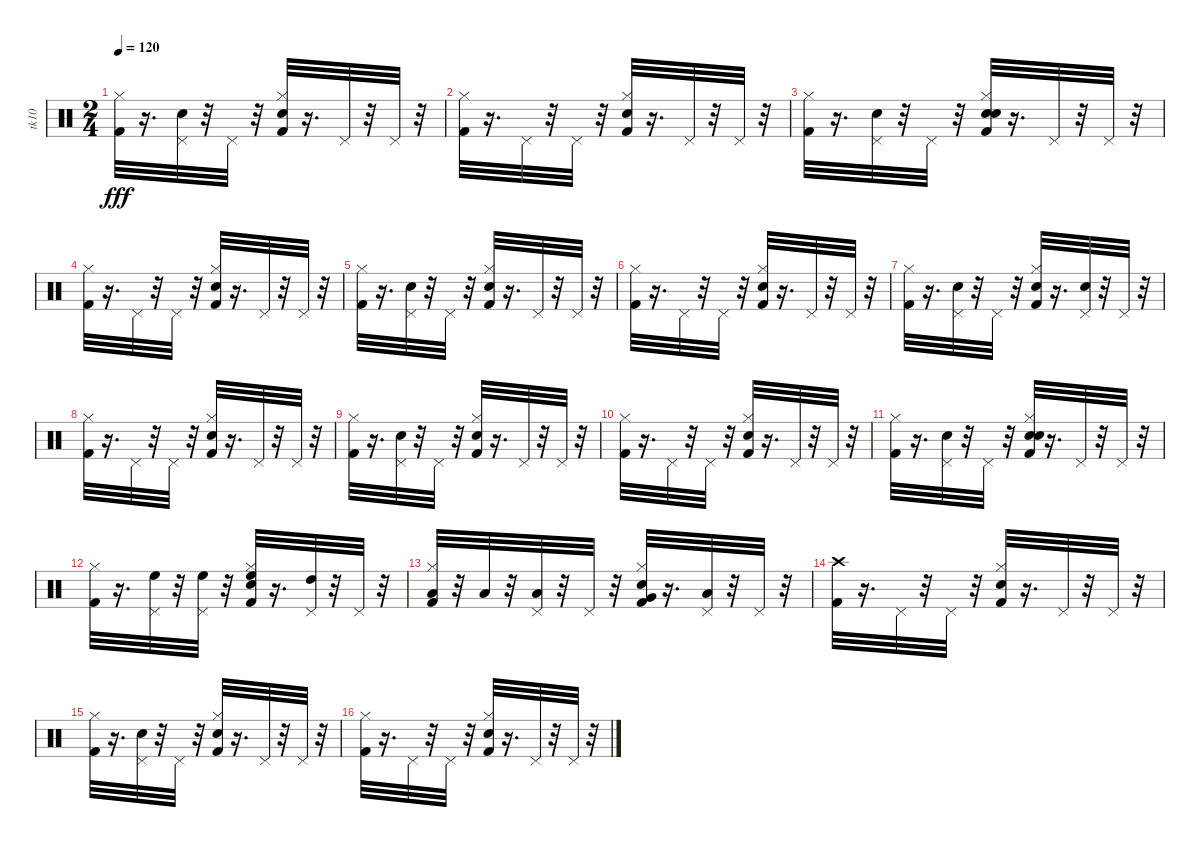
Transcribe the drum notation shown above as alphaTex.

\track ("tk10" "tk10") {instrument percussion}
\staff {score}
\articulation defaults
\ts (2 4)
\tempo 120
\clef neutral
\ks c
("Kick (hit) 2" "Hi-Hat (closed)").32{dy fff} r.16{d} ("Pedal Hi-Hat (hit)" "Hand Clap (hit)").32 r.32 "Pedal Hi-Hat (hit)".32 r.32 ("Snare (hit) 2" "Kick (hit) 2" "Hi-Hat (closed)").32 r.16{d} "Pedal Hi-Hat (hit)".32 r.32 "Pedal Hi-Hat (hit)".32 r.32 |
("Kick (hit) 2" "Hi-Hat (closed)").32 r.16{d} "Pedal Hi-Hat (hit)".32 r.32 "Pedal Hi-Hat (hit)".32 r.32 ("Snare (hit) 2" "Kick (hit) 2" "Hi-Hat (closed)").32 r.16{d} "Pedal Hi-Hat (hit)".32 r.32 "Pedal Hi-Hat (hit)".32 r.32 |
("Kick (hit) 2" "Hi-Hat (closed)").32 r.16{d} ("Hand Clap (hit)" "Pedal Hi-Hat (hit)").32 r.32 "Pedal Hi-Hat (hit)".32 r.32 ("Snare (hit) 2" "Kick (hit) 2" "Hand Clap (hit)" "Hi-Hat (closed)").32 r.16{d} "Pedal Hi-Hat (hit)".32 r.32 "Pedal Hi-Hat (hit)".32 r.32 |
("Kick (hit) 2" "Hi-Hat (closed)").32 r.16{d} "Pedal Hi-Hat (hit)".32 r.32 "Pedal Hi-Hat (hit)".32 r.32 ("Kick (hit) 2" "Snare (hit) 2" "Hi-Hat (closed)").32 r.16{d} "Pedal Hi-Hat (hit)".32 r.32 "Pedal Hi-Hat (hit)".32 r.32 |
("Kick (hit) 2" "Hi-Hat (closed)").32 r.16{d} ("Hand Clap (hit)" "Pedal Hi-Hat (hit)").32 r.32 "Pedal Hi-Hat (hit)".32 r.32 ("Kick (hit) 2" "Snare (hit) 2" "Hi-Hat (closed)").32 r.16{d} "Pedal Hi-Hat (hit)".32 r.32 "Pedal Hi-Hat (hit)".32 r.32 |
("Kick (hit) 2" "Hi-Hat (closed)").32 r.16{d} "Pedal Hi-Hat (hit)".32 r.32 "Pedal Hi-Hat (hit)".32 r.32 ("Snare (hit) 2" "Kick (hit) 2" "Hi-Hat (closed)").32 r.16{d} "Pedal Hi-Hat (hit)".32 r.32 "Pedal Hi-Hat (hit)".32 r.32 |
("Kick (hit) 2" "Hi-Hat (closed)").32 r.16{d} ("Hand Clap (hit)" "Pedal Hi-Hat (hit)").32 r.32 "Pedal Hi-Hat (hit)".32 r.32 ("Snare (hit) 2" "Kick (hit) 2" "Hi-Hat (closed)").32 r.16{d} ("Hand Clap (hit)" "Pedal Hi-Hat (hit)").32 r.32 "Pedal Hi-Hat (hit)".32 r.32 |
("Kick (hit) 2" "Hi-Hat (closed)").32 r.16{d} "Pedal Hi-Hat (hit)".32 r.32 "Pedal Hi-Hat (hit)".32 r.32 ("Snare (hit) 2" "Kick (hit) 2" "Hi-Hat (closed)").32 r.16{d} "Pedal Hi-Hat (hit)".32 r.32 "Pedal Hi-Hat (hit)".32 r.32 |
("Kick (hit) 2" "Hi-Hat (closed)").32 r.16{d} ("Pedal Hi-Hat (hit)" "Hand Clap (hit)").32 r.32 "Pedal Hi-Hat (hit)".32 r.32 ("Snare (hit) 2" "Kick (hit) 2" "Hi-Hat (closed)").32 r.16{d} "Pedal Hi-Hat (hit)".32 r.32 "Pedal Hi-Hat (hit)".32 r.32 |
("Kick (hit) 2" "Hi-Hat (closed)").32 r.16{d} "Pedal Hi-Hat (hit)".32 r.32 "Pedal Hi-Hat (hit)".32 r.32 ("Snare (hit) 2" "Kick (hit) 2" "Hi-Hat (closed)").32 r.16{d} "Pedal Hi-Hat (hit)".32 r.32 "Pedal Hi-Hat (hit)".32 r.32 |
("Kick (hit) 2" "Hi-Hat (closed)").32 r.16{d} ("Hand Clap (hit)" "Pedal Hi-Hat (hit)").32 r.32 "Pedal Hi-Hat (hit)".32 r.32 ("Snare (hit) 2" "Kick (hit) 2" "Hand Clap (hit)" "Hi-Hat (closed)").32 r.16{d} "Pedal Hi-Hat (hit)".32 r.32 "Pedal Hi-Hat (hit)".32 r.32 |
("Kick (hit) 2" "Hi-Hat (closed)").32 r.16{d} ("Pedal Hi-Hat (hit)" "High Floor Tom (hit)").32 r.32 ("High Floor Tom (hit)" "Pedal Hi-Hat (hit)").32 r.32 ("Kick (hit) 2" "Snare (hit) 2" "Hi-Hat (closed)" "High Floor Tom (hit)").32 r.16{d} ("High Tom (hit)" "Pedal Hi-Hat (hit)").32 r.32 "Pedal Hi-Hat (hit)".32 r.32 |
("Kick (hit) 2" "Low Tom (hit)" "Hi-Hat (closed)").32 r.32 "Low Tom (hit)".32 r.32 ("Low Tom (hit)" "Pedal Hi-Hat (hit)").32 r.32 "Pedal Hi-Hat (hit)".32 r.32 ("Kick (hit) 2" "Snare (hit) 2" "Very Low Tom (hit)" "Hi-Hat (closed)").32 r.16{d} ("Low Floor Tom (hit)" "Pedal Hi-Hat (hit)").32 r.32 "Pedal Hi-Hat (hit)".32 r.32 |
("Kick (hit) 2" "Crash high (hit)").32 r.16{d} "Pedal Hi-Hat (hit)".32 r.32 "Pedal Hi-Hat (hit)".32 r.32 ("Snare (hit) 2" "Kick (hit) 2" "Hi-Hat (closed)").32 r.16{d} "Pedal Hi-Hat (hit)".32 r.32 "Pedal Hi-Hat (hit)".32 r.32 |
("Kick (hit) 2" "Hi-Hat (closed)").32 r.16{d} ("Pedal Hi-Hat (hit)" "Hand Clap (hit)").32 r.32 "Pedal Hi-Hat (hit)".32 r.32 ("Snare (hit) 2" "Kick (hit) 2" "Hi-Hat (closed)").32 r.16{d} "Pedal Hi-Hat (hit)".32 r.32 "Pedal Hi-Hat (hit)".32 r.32 |
("Kick (hit) 2" "Hi-Hat (closed)").32 r.16{d} "Pedal Hi-Hat (hit)".32 r.32 "Pedal Hi-Hat (hit)".32 r.32 ("Snare (hit) 2" "Kick (hit) 2" "Hi-Hat (closed)").32 r.16{d} "Pedal Hi-Hat (hit)".32 r.32 "Pedal Hi-Hat (hit)".32 r.32
